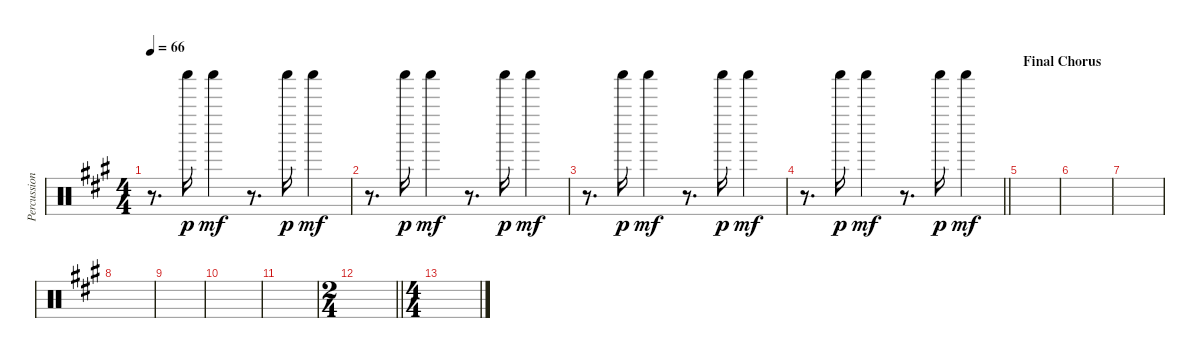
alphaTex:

\track ("Percussion" "Percussion") {instrument percussion}
\staff {score}
\articulation defaults
\ts (4 4)
\tempo 66
\clef neutral
\ks f#minor
r.8{d dy mf} "Shaker (hit)".16{dy p} "Shaker (hit)".4{dy mf} r.8{d} "Shaker (hit)".16{dy p} "Shaker (hit)".4{dy mf} |
r.8{d} "Shaker (hit)".16{dy p} "Shaker (hit)".4{dy mf} r.8{d} "Shaker (hit)".16{dy p} "Shaker (hit)".4{dy mf} |
r.8{d} "Shaker (hit)".16{dy p} "Shaker (hit)".4{dy mf} r.8{d} "Shaker (hit)".16{dy p} "Shaker (hit)".4{dy mf} |
\barLineRight lightlight
r.8{d} "Shaker (hit)".16{dy p} "Shaker (hit)".4{dy mf} r.8{d} "Shaker (hit)".16{dy p} "Shaker (hit)".4{dy mf} |
\section ("" "Final Chorus")
|
|
|
|
|
|
|
\ts (2 4)
\barLineRight lightlight
|
\ts (4 4)
